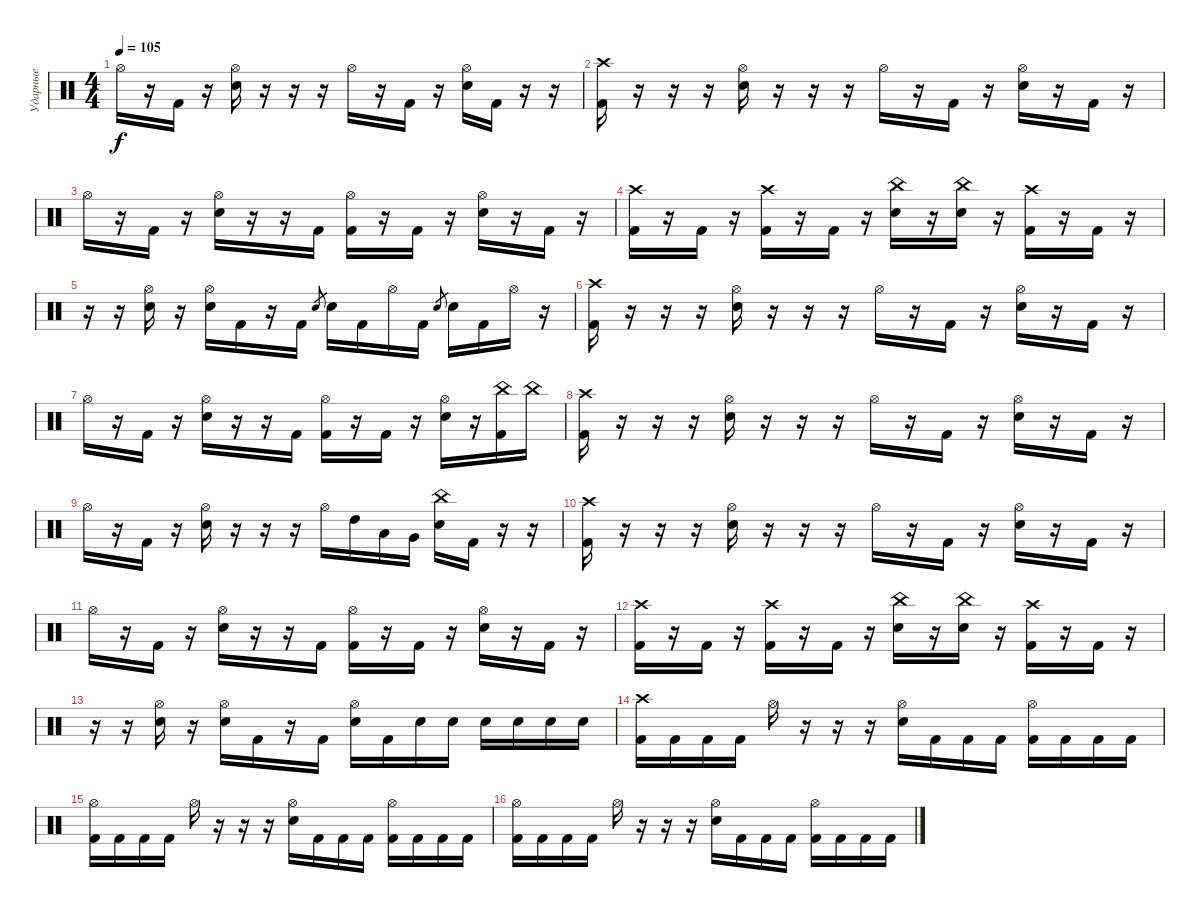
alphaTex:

\track ("Ударные" "Ударные") {instrument percussion}
\staff {score}
\articulation defaults
\ts (4 4)
\tempo 105
\clef neutral
\ks c "Hi-Hat (open)".16{dy f}
r.16 "Kick (hit) 2".16 r.16 ("Hi-Hat (open)" "Electric Snare (hit)").16 r.16 r.16 r.16 "Hi-Hat (open)".16 r.16 "Kick (hit) 2".16 r.16 ("Hi-Hat (open)" "Electric Snare (hit)").16 "Kick (hit) 2".16 r.16 r.16 |
("Crash high (hit)" "Kick (hit) 2").16 r.16 r.16 r.16 ("Hi-Hat (open)" "Electric Snare (hit)").16 r.16 r.16 r.16 "Hi-Hat (open)".16 r.16 "Kick (hit) 2".16 r.16 ("Hi-Hat (open)" "Electric Snare (hit)").16 r.16 "Kick (hit) 2".16 r.16 |
"Hi-Hat (open)".16 r.16 "Kick (hit) 2".16 r.16 ("Hi-Hat (open)" "Electric Snare (hit)").16 r.16 r.16 "Kick (hit) 2".16 ("Hi-Hat (open)" "Kick (hit) 2").16 r.16 "Kick (hit) 2".16 r.16 ("Hi-Hat (open)" "Electric Snare (hit)").16 r.16 "Kick (hit) 2".16 r.16 |
("Crash high (hit)" "Kick (hit) 2").16 r.16 "Kick (hit) 2".16 r.16 ("Crash high (hit)" "Kick (hit) 2").16 r.16 "Kick (hit) 2".16 r.16 ("China (hit)" "Electric Snare (hit)").16 r.16 ("China (hit)" "Electric Snare (hit)").16 r.16 ("Crash high (hit)" "Kick (hit) 2").16 r.16 "Kick (hit) 2".16 r.16 |
r.16 r.16 ("Hi-Hat (open)" "Electric Snare (hit)").16 r.16 ("Hi-Hat (open)" "Electric Snare (hit)").16 "Kick (hit) 2".16 r.16 "Kick (hit) 2".16 "Electric Snare (hit)".8{gr} "Electric Snare (hit)".16 "Kick (hit) 2".16 "Hi-Hat (open)".16 "Kick (hit) 2".16 "Electric Snare (hit)".8{gr} "Electric Snare (hit)".16 "Kick (hit) 2".16 "Hi-Hat (open)".16 r.16 |
("Crash high (hit)" "Kick (hit) 2").16 r.16 r.16 r.16 ("Hi-Hat (open)" "Electric Snare (hit)").16 r.16 r.16 r.16 "Hi-Hat (open)".16 r.16 "Kick (hit) 2".16 r.16 ("Hi-Hat (open)" "Electric Snare (hit)").16 r.16 "Kick (hit) 2".16 r.16 |
"Hi-Hat (open)".16 r.16 "Kick (hit) 2".16 r.16 ("Hi-Hat (open)" "Electric Snare (hit)").16 r.16 r.16 "Kick (hit) 2".16 ("Hi-Hat (open)" "Kick (hit) 2").16 r.16 "Kick (hit) 2".16 r.16 ("Hi-Hat (open)" "Electric Snare (hit)").16 r.16 ("China (hit)" "Kick (hit) 2").16 "China (hit)".16 |
("Crash high (hit)" "Kick (hit) 2").16 r.16 r.16 r.16 ("Hi-Hat (open)" "Electric Snare (hit)").16 r.16 r.16 r.16 "Hi-Hat (open)".16 r.16 "Kick (hit) 2".16 r.16 ("Hi-Hat (open)" "Electric Snare (hit)").16 r.16 "Kick (hit) 2".16 r.16 |
"Hi-Hat (open)".16 r.16 "Kick (hit) 2".16 r.16 ("Hi-Hat (open)" "Electric Snare (hit)").16 r.16 r.16 r.16 "Hi-Hat (open)".16 "High Tom (hit)".16 "Low Tom (hit)".16 "Very Low Tom (hit)".16 ("China (hit)" "Electric Snare (hit)").16 "Kick (hit) 2".16 r.16 r.16 |
("Crash high (hit)" "Kick (hit) 2").16 r.16 r.16 r.16 ("Hi-Hat (open)" "Electric Snare (hit)").16 r.16 r.16 r.16 "Hi-Hat (open)".16 r.16 "Kick (hit) 2".16 r.16 ("Hi-Hat (open)" "Electric Snare (hit)").16 r.16 "Kick (hit) 2".16 r.16 |
"Hi-Hat (open)".16 r.16 "Kick (hit) 2".16 r.16 ("Hi-Hat (open)" "Electric Snare (hit)").16 r.16 r.16 "Kick (hit) 2".16 ("Hi-Hat (open)" "Kick (hit) 2").16 r.16 "Kick (hit) 2".16 r.16 ("Hi-Hat (open)" "Electric Snare (hit)").16 r.16 "Kick (hit) 2".16 r.16 |
("Crash high (hit)" "Kick (hit) 2").16 r.16 "Kick (hit) 2".16 r.16 ("Crash high (hit)" "Kick (hit) 2").16 r.16 "Kick (hit) 2".16 r.16 ("China (hit)" "Electric Snare (hit)").16 r.16 ("China (hit)" "Electric Snare (hit)").16 r.16 ("Crash high (hit)" "Kick (hit) 2").16 r.16 "Kick (hit) 2".16 r.16 |
r.16 r.16 ("Hi-Hat (open)" "Electric Snare (hit)").16 r.16 ("Hi-Hat (open)" "Electric Snare (hit)").16 "Kick (hit) 2".16 r.16 "Kick (hit) 2".16 ("Hi-Hat (open)" "Electric Snare (hit)").16 "Kick (hit) 2".16 "Electric Snare (hit)".16 "Electric Snare (hit)".16 "Electric Snare (hit)".16 "Electric Snare (hit)".16 "Electric Snare (hit)".16 "Electric Snare (hit)".16 |
("Crash high (hit)" "Kick (hit) 2").16 "Kick (hit) 2".16 "Kick (hit) 2".16 "Kick (hit) 2".16 "Hi-Hat (open)".16 r.16 r.16 r.16 ("Hi-Hat (open)" "Electric Snare (hit)").16 "Kick (hit) 2".16 "Kick (hit) 2".16 "Kick (hit) 2".16 ("Hi-Hat (open)" "Kick (hit) 2").16 "Kick (hit) 2".16 "Kick (hit) 2".16 "Kick (hit) 2".16 |
("Hi-Hat (open)" "Kick (hit) 2").16 "Kick (hit) 2".16 "Kick (hit) 2".16 "Kick (hit) 2".16 "Hi-Hat (open)".16 r.16 r.16 r.16 ("Hi-Hat (open)" "Electric Snare (hit)").16 "Kick (hit) 2".16 "Kick (hit) 2".16 "Kick (hit) 2".16 ("Hi-Hat (open)" "Kick (hit) 2").16 "Kick (hit) 2".16 "Kick (hit) 2".16 "Kick (hit) 2".16 |
("Hi-Hat (open)" "Kick (hit) 2").16 "Kick (hit) 2".16 "Kick (hit) 2".16 "Kick (hit) 2".16 "Hi-Hat (open)".16 r.16 r.16 r.16 ("Hi-Hat (open)" "Electric Snare (hit)").16 "Kick (hit) 2".16 "Kick (hit) 2".16 "Kick (hit) 2".16 ("Hi-Hat (open)" "Kick (hit) 2").16 "Kick (hit) 2".16 "Kick (hit) 2".16 "Kick (hit) 2".16
